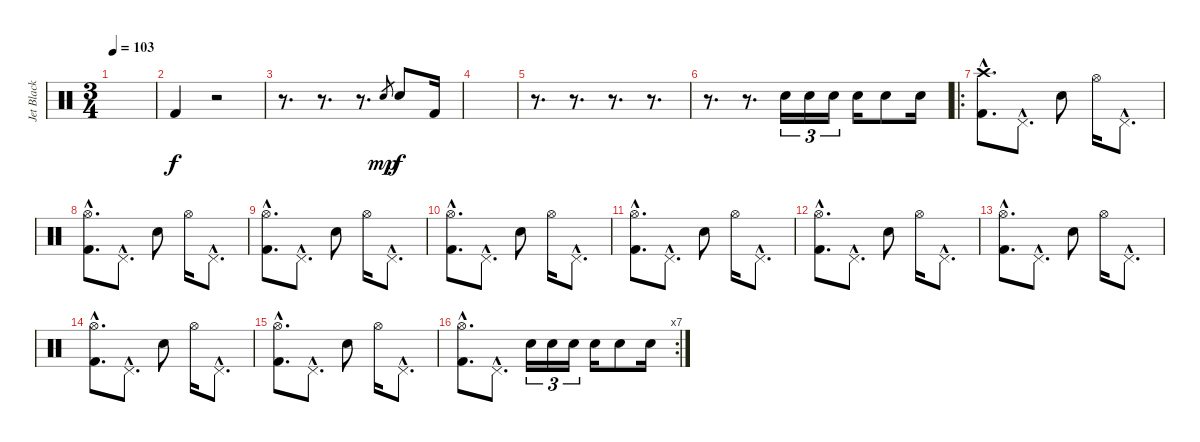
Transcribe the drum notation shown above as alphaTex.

\track ("Jet Black - Drums" "Jet Black ") {instrument percussion}
\staff {score}
\articulation defaults
\ts (3 4)
\tempo 103
\clef neutral
\ks c
|
"Kick (hit) 2".4 r.2 |
r.8{d} r.8{d} r.8{d} "Snare (hit) 2".8{gr dy mp} "Snare (hit) 2".8{dy f} "Kick (hit) 2".16 |
|
r.8{d} r.8{d} r.8{d} r.8{d} |
r.8{d} r.8{d} "Snare (hit) 2".16{tu (3 2)} "Snare (hit) 2".16{tu (3 2)} "Snare (hit) 2".16{tu (3 2)} "Snare (hit) 2".16 "Snare (hit) 2".8 "Snare (hit) 2".16 |
\ro
("Crash high (hit)"{hac} "Kick (hit) 2"{hac}).8{d} "Pedal Hi-Hat (hit)"{hac}.8{d} "Snare (hit) 2".8 "Hi-Hat (open)".16 "Pedal Hi-Hat (hit)"{hac}.8{d} |
("Hi-Hat (open)"{hac} "Kick (hit) 2"{hac}).8{d} "Pedal Hi-Hat (hit)"{hac}.8{d} "Snare (hit) 2".8 "Hi-Hat (open)".16 "Pedal Hi-Hat (hit)"{hac}.8{d} |
("Hi-Hat (open)"{hac} "Kick (hit) 2"{hac}).8{d} "Pedal Hi-Hat (hit)"{hac}.8{d} "Snare (hit) 2".8 "Hi-Hat (open)".16 "Pedal Hi-Hat (hit)"{hac}.8{d} |
("Hi-Hat (open)"{hac} "Kick (hit) 2"{hac}).8{d} "Pedal Hi-Hat (hit)"{hac}.8{d} "Snare (hit) 2".8 "Hi-Hat (open)".16 "Pedal Hi-Hat (hit)"{hac}.8{d} |
("Hi-Hat (open)"{hac} "Kick (hit) 2"{hac}).8{d} "Pedal Hi-Hat (hit)"{hac}.8{d} "Snare (hit) 2".8 "Hi-Hat (open)".16 "Pedal Hi-Hat (hit)"{hac}.8{d} |
("Hi-Hat (open)"{hac} "Kick (hit) 2"{hac}).8{d} "Pedal Hi-Hat (hit)"{hac}.8{d} "Snare (hit) 2".8 "Hi-Hat (open)".16 "Pedal Hi-Hat (hit)"{hac}.8{d} |
("Hi-Hat (open)"{hac} "Kick (hit) 2"{hac}).8{d} "Pedal Hi-Hat (hit)"{hac}.8{d} "Snare (hit) 2".8 "Hi-Hat (open)".16 "Pedal Hi-Hat (hit)"{hac}.8{d} |
("Hi-Hat (open)"{hac} "Kick (hit) 2"{hac}).8{d} "Pedal Hi-Hat (hit)"{hac}.8{d} "Snare (hit) 2".8 "Hi-Hat (open)".16 "Pedal Hi-Hat (hit)"{hac}.8{d} |
("Hi-Hat (open)"{hac} "Kick (hit) 2"{hac}).8{d} "Pedal Hi-Hat (hit)"{hac}.8{d} "Snare (hit) 2".8 "Hi-Hat (open)".16 "Pedal Hi-Hat (hit)"{hac}.8{d} |
\rc 7
("Hi-Hat (open)"{hac} "Kick (hit) 2"{hac}).8{d} "Pedal Hi-Hat (hit)"{hac}.8{d} "Snare (hit) 2".16{tu (3 2)} "Snare (hit) 2".16{tu (3 2)} "Snare (hit) 2".16{tu (3 2)} "Snare (hit) 2".16 "Snare (hit) 2".8 "Snare (hit) 2".16
